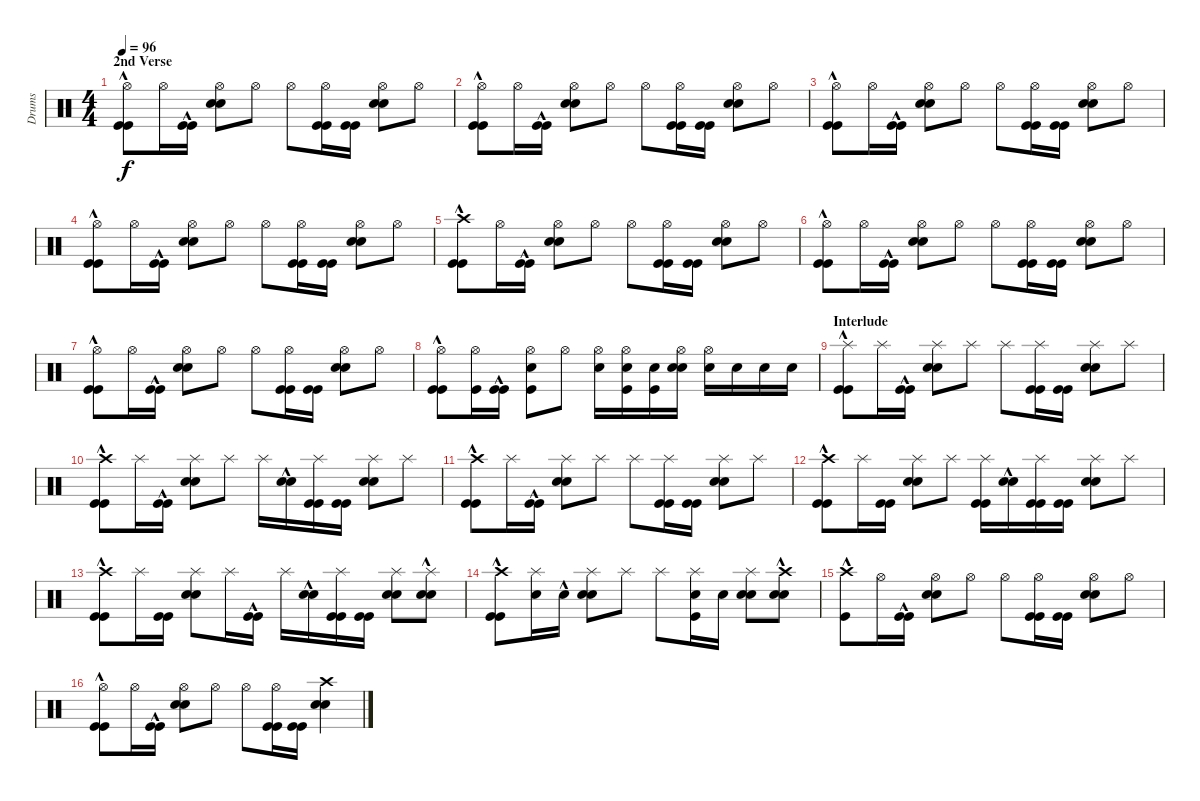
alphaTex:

\track ("Drums" "Drums") {instrument percussion}
\staff {score}
\articulation defaults
\ts (4 4)
\section ("" "2nd Verse")
\tempo 96
\clef neutral
\ks c
("Kick (hit)"{hac} "Kick (hit)"{hac} "Hi-Hat (open)").8{dy f} "Hi-Hat (open)".16 ("Kick (hit)"{hac} "Kick (hit)"{hac}).16 ("Snare (hit) 2" "Snare (hit) 2" "Hi-Hat (open)").8 "Hi-Hat (open)".8 "Hi-Hat (open)".8 ("Kick (hit)" "Kick (hit)" "Hi-Hat (open)").16 ("Kick (hit)" "Kick (hit)").16 ("Snare (hit) 2" "Snare (hit) 2" "Hi-Hat (open)").8 "Hi-Hat (open)".8 |
("Kick (hit)"{hac} "Kick (hit)"{hac} "Hi-Hat (open)").8 "Hi-Hat (open)".16 ("Kick (hit)"{hac} "Kick (hit)"{hac}).16 ("Snare (hit) 2" "Snare (hit) 2" "Hi-Hat (open)").8 "Hi-Hat (open)".8 "Hi-Hat (open)".8 ("Kick (hit)" "Kick (hit)" "Hi-Hat (open)").16 ("Kick (hit)" "Kick (hit)").16 ("Snare (hit) 2" "Snare (hit) 2" "Hi-Hat (open)").8 "Hi-Hat (open)".8 |
("Kick (hit)"{hac} "Kick (hit)"{hac} "Hi-Hat (open)").8 "Hi-Hat (open)".16 ("Kick (hit)"{hac} "Kick (hit)"{hac}).16 ("Snare (hit) 2" "Snare (hit) 2" "Hi-Hat (open)").8 "Hi-Hat (open)".8 "Hi-Hat (open)".8 ("Kick (hit)" "Kick (hit)" "Hi-Hat (open)").16 ("Kick (hit)" "Kick (hit)").16 ("Snare (hit) 2" "Snare (hit) 2" "Hi-Hat (open)").8 "Hi-Hat (open)".8 |
("Kick (hit)"{hac} "Kick (hit)"{hac} "Hi-Hat (open)").8 "Hi-Hat (open)".16 ("Kick (hit)"{hac} "Kick (hit)"{hac}).16 ("Snare (hit) 2" "Snare (hit) 2" "Hi-Hat (open)").8 "Hi-Hat (open)".8 "Hi-Hat (open)".8 ("Kick (hit)" "Kick (hit)" "Hi-Hat (open)").16 ("Kick (hit)" "Kick (hit)").16 ("Snare (hit) 2" "Snare (hit) 2" "Hi-Hat (open)").8 "Hi-Hat (open)".8 |
("Kick (hit)"{hac} "Kick (hit)"{hac} "Crash high (hit)").8 "Hi-Hat (open)".16 ("Kick (hit)"{hac} "Kick (hit)"{hac}).16 ("Snare (hit) 2" "Snare (hit) 2" "Hi-Hat (open)").8 "Hi-Hat (open)".8 "Hi-Hat (open)".8 ("Kick (hit)" "Kick (hit)" "Hi-Hat (open)").16 ("Kick (hit)" "Kick (hit)").16 ("Snare (hit) 2" "Snare (hit) 2" "Hi-Hat (open)").8 "Hi-Hat (open)".8 |
("Kick (hit)"{hac} "Kick (hit)"{hac} "Hi-Hat (open)").8 "Hi-Hat (open)".16 ("Kick (hit)"{hac} "Kick (hit)"{hac}).16 ("Snare (hit) 2" "Snare (hit) 2" "Hi-Hat (open)").8 "Hi-Hat (open)".8 "Hi-Hat (open)".8 ("Kick (hit)" "Kick (hit)" "Hi-Hat (open)").16 ("Kick (hit)" "Kick (hit)").16 ("Snare (hit) 2" "Snare (hit) 2" "Hi-Hat (open)").8 "Hi-Hat (open)".8 |
("Kick (hit)"{hac} "Kick (hit)"{hac} "Hi-Hat (open)").8 "Hi-Hat (open)".16 ("Kick (hit)"{hac} "Kick (hit)"{hac}).16 ("Snare (hit) 2" "Snare (hit) 2" "Hi-Hat (open)").8 "Hi-Hat (open)".8 "Hi-Hat (open)".8 ("Kick (hit)" "Kick (hit)" "Hi-Hat (open)").16 ("Kick (hit)" "Kick (hit)").16 ("Snare (hit) 2" "Snare (hit) 2" "Hi-Hat (open)").8 "Hi-Hat (open)".8 |
("Kick (hit)"{hac} "Kick (hit)"{hac} "Hi-Hat (open)").8 ("Hi-Hat (open)" "Kick (hit)").16 ("Kick (hit)"{hac} "Kick (hit)"{hac}).16 ("Snare (hit) 2" "Kick (hit)" "Hi-Hat (open)").8 "Hi-Hat (open)".8 ("Hi-Hat (open)" "Snare (hit) 2").16 ("Kick (hit)" "Snare (hit) 2" "Hi-Hat (open)").16 ("Kick (hit)" "Snare (hit) 2").16 ("Snare (hit) 2" "Snare (hit) 2" "Hi-Hat (open)").16 ("Hi-Hat (open)" "Snare (hit) 2").16 "Snare (hit) 2".16 "Snare (hit) 2".16 "Snare (hit) 2".16 |
\section ("" "Interlude")
("Kick (hit)"{hac} "Kick (hit)"{hac} "Splash (hit)").8 "Splash (hit)".16 ("Kick (hit)"{hac} "Kick (hit)"{hac}).16 ("Snare (hit) 2" "Snare (hit) 2" "Splash (hit)").8 "Splash (hit)".8 "Splash (hit)".8 ("Kick (hit)" "Kick (hit)" "Splash (hit)").16 ("Kick (hit)" "Kick (hit)").16 ("Snare (hit) 2" "Snare (hit) 2" "Splash (hit)").8 "Splash (hit)".8 |
("Kick (hit)"{hac} "Kick (hit)"{hac} "Crash high (hit)").8 "Splash (hit)".16 ("Kick (hit)"{hac} "Kick (hit)"{hac}).16 ("Snare (hit) 2" "Snare (hit) 2" "Splash (hit)").8 "Splash (hit)".8 "Splash (hit)".16 ("Snare (hit) 2"{hac} "Snare (hit) 2"{hac}).16 ("Kick (hit)" "Kick (hit)" "Splash (hit)").16 ("Kick (hit)" "Kick (hit)").16 ("Snare (hit) 2" "Snare (hit) 2" "Splash (hit)").8 "Splash (hit)".8 |
("Kick (hit)"{hac} "Kick (hit)"{hac} "Crash high (hit)").8 "Splash (hit)".16 ("Kick (hit)"{hac} "Kick (hit)"{hac}).16 ("Snare (hit) 2" "Snare (hit) 2" "Splash (hit)").8 "Splash (hit)".8 "Splash (hit)".8 ("Kick (hit)" "Kick (hit)" "Splash (hit)").16 ("Kick (hit)" "Kick (hit)").16 ("Snare (hit) 2" "Snare (hit) 2" "Splash (hit)").8 "Splash (hit)".8 |
("Kick (hit)"{hac} "Kick (hit)"{hac} "Crash high (hit)").8 "Splash (hit)".16 ("Kick (hit)" "Kick (hit)").16 ("Snare (hit) 2" "Snare (hit) 2" "Splash (hit)").8 "Splash (hit)".8 ("Kick (hit)" "Kick (hit)" "Splash (hit)").16 ("Snare (hit) 2"{hac} "Snare (hit) 2"{hac}).16 ("Kick (hit)" "Kick (hit)" "Splash (hit)").16 ("Kick (hit)" "Kick (hit)").16 ("Snare (hit) 2" "Snare (hit) 2" "Splash (hit)").8 "Splash (hit)".8 |
("Kick (hit)"{hac} "Kick (hit)"{hac} "Crash high (hit)").8 "Splash (hit)".16 ("Kick (hit)" "Kick (hit)").16 ("Snare (hit) 2" "Snare (hit) 2" "Splash (hit)").8 "Splash (hit)".16 ("Kick (hit)"{hac} "Kick (hit)"{hac}).16 "Splash (hit)".16 ("Snare (hit) 2"{hac} "Snare (hit) 2"{hac}).16 ("Kick (hit)" "Kick (hit)" "Splash (hit)").16 ("Kick (hit)" "Kick (hit)").16 ("Snare (hit) 2" "Snare (hit) 2" "Splash (hit)").8 ("Snare (hit) 2"{hac} "Snare (hit) 2"{hac} "Splash (hit)").8 |
("Kick (hit)"{hac} "Kick (hit)"{hac} "Crash high (hit)").8 ("Splash (hit)" "Snare (hit) 2").16 "Snare (hit) 2"{hac}.16 ("Snare (hit) 2" "Snare (hit) 2" "Splash (hit)").8 "Splash (hit)".8 "Splash (hit)".8 ("Kick (hit)" "Snare (hit) 2" "Splash (hit)").16 "Snare (hit) 2".16 ("Snare (hit) 2" "Snare (hit) 2" "Splash (hit)").8 ("Snare (hit) 2"{hac} "Snare (hit) 2"{hac} "Crash high (hit)").8 |
("Kick (hit)"{hac} "Crash high (hit)").8 "Hi-Hat (open)".16 ("Kick (hit)"{hac} "Kick (hit)"{hac}).16 ("Snare (hit) 2" "Snare (hit) 2" "Hi-Hat (open)").8 "Hi-Hat (open)".8 "Hi-Hat (open)".8 ("Kick (hit)" "Kick (hit)" "Hi-Hat (open)").16 ("Kick (hit)" "Kick (hit)").16 ("Snare (hit) 2" "Snare (hit) 2" "Hi-Hat (open)").8 "Hi-Hat (open)".8 |
("Kick (hit)"{hac} "Kick (hit)"{hac} "Hi-Hat (open)").8 "Hi-Hat (open)".16 ("Kick (hit)"{hac} "Kick (hit)"{hac}).16 ("Snare (hit) 2" "Snare (hit) 2" "Hi-Hat (open)").8 "Hi-Hat (open)".8 "Hi-Hat (open)".8 ("Kick (hit)" "Kick (hit)" "Hi-Hat (open)").16 ("Kick (hit)" "Kick (hit)").16 ("Snare (hit) 2" "Snare (hit) 2" "Crash high (hit)").4
